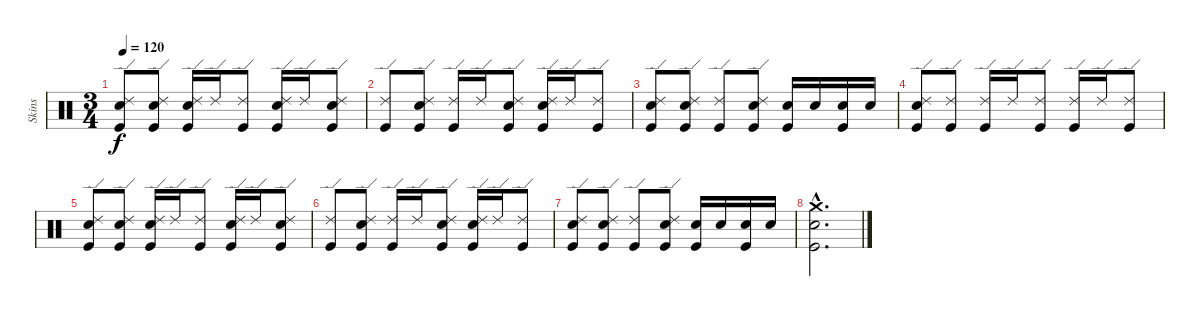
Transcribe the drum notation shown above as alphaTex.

\track ("Skins" "Skins") {instrument percussion}
\staff {score}
\articulation defaults
\ts (3 4)
\tempo 120
\clef neutral
\ks c
("Electric Snare (hit)" "Ride (edge) 2" "Kick (hit)").8{dy f} ("Electric Snare (hit)" "Ride (edge) 2" "Kick (hit)").8 ("Electric Snare (hit)" "Ride (edge) 2" "Kick (hit)").16 "Ride (edge) 2".16 ("Ride (edge) 2" "Kick (hit)").8 ("Electric Snare (hit)" "Ride (edge) 2" "Kick (hit)").16 "Ride (edge) 2".16 ("Electric Snare (hit)" "Ride (edge) 2" "Kick (hit)").8 |
("Ride (edge) 2" "Kick (hit)").8 ("Electric Snare (hit)" "Ride (edge) 2" "Kick (hit)").8 ("Ride (edge) 2" "Kick (hit)").16 "Ride (edge) 2".16 ("Electric Snare (hit)" "Ride (edge) 2" "Kick (hit)").8 ("Electric Snare (hit)" "Ride (edge) 2" "Kick (hit)").16 "Ride (edge) 2".16 ("Ride (edge) 2" "Kick (hit)").8 |
("Electric Snare (hit)" "Ride (edge) 2" "Kick (hit)").8 ("Electric Snare (hit)" "Ride (edge) 2" "Kick (hit)").8 ("Ride (edge) 2" "Kick (hit)").8 ("Electric Snare (hit)" "Ride (edge) 2" "Kick (hit)").8 ("Electric Snare (hit)" "Kick (hit)").16 "Electric Snare (hit)".16 ("Electric Snare (hit)" "Kick (hit)").16 "Electric Snare (hit)".16 |
("Electric Snare (hit)" "Ride (edge) 2" "Kick (hit)").8 ("Ride (edge) 2" "Kick (hit)").8 ("Ride (edge) 2" "Kick (hit)").16 "Ride (edge) 2".16 ("Ride (edge) 2" "Kick (hit)").8 ("Ride (edge) 2" "Kick (hit)").16 "Ride (edge) 2".16 ("Ride (edge) 2" "Kick (hit)").8 |
("Electric Snare (hit)" "Ride (edge) 2" "Kick (hit)").8 ("Electric Snare (hit)" "Ride (edge) 2" "Kick (hit)").8 ("Electric Snare (hit)" "Ride (edge) 2" "Kick (hit)").16 "Ride (edge) 2".16 ("Ride (edge) 2" "Kick (hit)").8 ("Electric Snare (hit)" "Ride (edge) 2" "Kick (hit)").16 "Ride (edge) 2".16 ("Electric Snare (hit)" "Ride (edge) 2" "Kick (hit)").8 |
("Ride (edge) 2" "Kick (hit)").8 ("Electric Snare (hit)" "Ride (edge) 2" "Kick (hit)").8 ("Ride (edge) 2" "Kick (hit)").16 "Ride (edge) 2".16 ("Electric Snare (hit)" "Ride (edge) 2" "Kick (hit)").8 ("Electric Snare (hit)" "Ride (edge) 2" "Kick (hit)").16 "Ride (edge) 2".16 ("Ride (edge) 2" "Kick (hit)").8 |
("Electric Snare (hit)" "Ride (edge) 2" "Kick (hit)").8 ("Electric Snare (hit)" "Ride (edge) 2" "Kick (hit)").8 ("Ride (edge) 2" "Kick (hit)").8 ("Electric Snare (hit)" "Ride (edge) 2" "Kick (hit)").8 ("Electric Snare (hit)" "Kick (hit)").16 "Electric Snare (hit)".16 ("Electric Snare (hit)" "Kick (hit)").16 "Electric Snare (hit)".16 |
("Crash medium (hit)"{hac} "Electric Snare (hit)"{hac} "Kick (hit)"{hac}).2{d}
